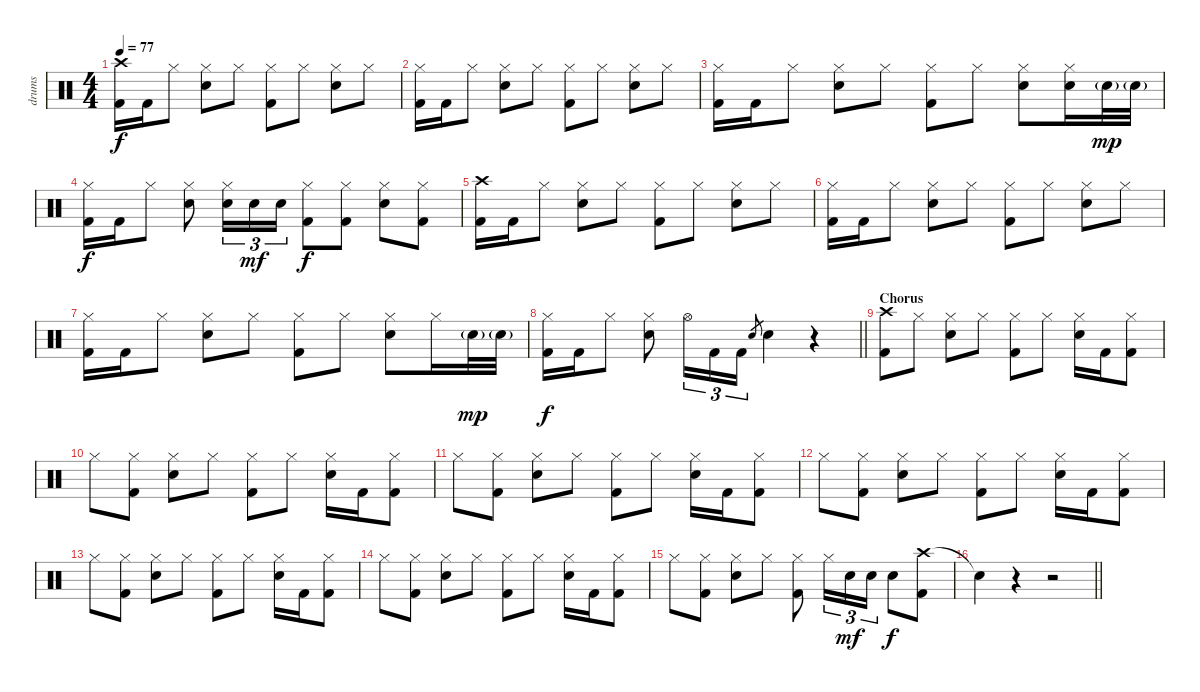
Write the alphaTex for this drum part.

\track ("drums" "drums") {instrument percussion}
\staff {score}
\articulation defaults
\ts (4 4)
\tempo 77
\clef neutral
\ks c
("Crash high (hit)" "Kick (hit) 2").16{dy f} "Kick (hit) 2".16 "Hi-Hat (closed)".8 ("Hi-Hat (closed)" "Electric Snare (hit)").8 "Hi-Hat (closed)".8 ("Hi-Hat (closed)" "Kick (hit) 2").8 "Hi-Hat (closed)".8 ("Hi-Hat (closed)" "Electric Snare (hit)").8 "Hi-Hat (closed)".8 |
("Hi-Hat (closed)" "Kick (hit) 2").16 "Kick (hit) 2".16 "Hi-Hat (closed)".8 ("Hi-Hat (closed)" "Electric Snare (hit)").8 "Hi-Hat (closed)".8 ("Hi-Hat (closed)" "Kick (hit) 2").8 "Hi-Hat (closed)".8 ("Hi-Hat (closed)" "Electric Snare (hit)").8 "Hi-Hat (closed)".8 |
("Hi-Hat (closed)" "Kick (hit) 2").16 "Kick (hit) 2".16 "Hi-Hat (closed)".8 ("Hi-Hat (closed)" "Electric Snare (hit)").8 "Hi-Hat (closed)".8 ("Hi-Hat (closed)" "Kick (hit) 2").8 "Hi-Hat (closed)".8 ("Hi-Hat (closed)" "Electric Snare (hit)").8 ("Hi-Hat (closed)" "Electric Snare (hit)").16 "Electric Snare (hit)"{g}.32{dy mp} "Electric Snare (hit)"{g}.32 |
("Hi-Hat (closed)" "Kick (hit) 2").16{dy f} "Kick (hit) 2".16 "Hi-Hat (closed)".8 ("Hi-Hat (closed)" "Electric Snare (hit)").8 ("Hi-Hat (closed)" "Electric Snare (hit)").16{tu (3 2)} "Electric Snare (hit)".16{tu (3 2) dy mf} "Electric Snare (hit)".16{tu (3 2)} ("Hi-Hat (closed)" "Kick (hit) 2").8{dy f} ("Hi-Hat (closed)" "Kick (hit) 2").8 ("Hi-Hat (closed)" "Electric Snare (hit)").8 ("Hi-Hat (closed)" "Kick (hit) 2").8 |
("Crash high (hit)" "Kick (hit) 2").16 "Kick (hit) 2".16 "Hi-Hat (closed)".8 ("Hi-Hat (closed)" "Electric Snare (hit)").8 "Hi-Hat (closed)".8 ("Hi-Hat (closed)" "Kick (hit) 2").8 "Hi-Hat (closed)".8 ("Hi-Hat (closed)" "Electric Snare (hit)").8 "Hi-Hat (closed)".8 |
("Hi-Hat (closed)" "Kick (hit) 2").16 "Kick (hit) 2".16 "Hi-Hat (closed)".8 ("Hi-Hat (closed)" "Electric Snare (hit)").8 "Hi-Hat (closed)".8 ("Hi-Hat (closed)" "Kick (hit) 2").8 "Hi-Hat (closed)".8 ("Hi-Hat (closed)" "Electric Snare (hit)").8 "Hi-Hat (closed)".8 |
("Hi-Hat (closed)" "Kick (hit) 2").16 "Kick (hit) 2".16 "Hi-Hat (closed)".8 ("Hi-Hat (closed)" "Electric Snare (hit)").8 "Hi-Hat (closed)".8 ("Hi-Hat (closed)" "Kick (hit) 2").8 "Hi-Hat (closed)".8 ("Hi-Hat (closed)" "Electric Snare (hit)").8 "Hi-Hat (closed)".16 "Electric Snare (hit)"{g}.32{dy mp} "Electric Snare (hit)"{g}.32 |
\barLineRight lightlight
("Hi-Hat (closed)" "Kick (hit) 2").16{dy f} "Kick (hit) 2".16 "Hi-Hat (closed)".8 ("Hi-Hat (closed)" "Electric Snare (hit)").8 "Hi-Hat (open)".16{tu (3 2)} "Kick (hit) 2".16{tu (3 2)} "Kick (hit) 2".16{tu (3 2)} "Electric Snare (hit)".8{gr} "Electric Snare (hit)".4 r.4 |
\section ("" "Chorus")
("Crash high (hit)" "Kick (hit) 2").8 "Hi-Hat (closed)".8 ("Hi-Hat (closed)" "Electric Snare (hit)").8 "Hi-Hat (closed)".8 ("Hi-Hat (closed)" "Kick (hit) 2").8 "Hi-Hat (closed)".8 ("Hi-Hat (closed)" "Electric Snare (hit)").16 "Kick (hit) 2".16 ("Hi-Hat (closed)" "Kick (hit) 2").8 |
"Hi-Hat (closed)".8 ("Hi-Hat (closed)" "Kick (hit) 2").8 ("Hi-Hat (closed)" "Electric Snare (hit)").8 "Hi-Hat (closed)".8 ("Hi-Hat (closed)" "Kick (hit) 2").8 "Hi-Hat (closed)".8 ("Hi-Hat (closed)" "Electric Snare (hit)").16 "Kick (hit) 2".16 ("Hi-Hat (closed)" "Kick (hit) 2").8 |
"Hi-Hat (closed)".8 ("Hi-Hat (closed)" "Kick (hit) 2").8 ("Hi-Hat (closed)" "Electric Snare (hit)").8 "Hi-Hat (closed)".8 ("Hi-Hat (closed)" "Kick (hit) 2").8 "Hi-Hat (closed)".8 ("Hi-Hat (closed)" "Electric Snare (hit)").16 "Kick (hit) 2".16 ("Hi-Hat (closed)" "Kick (hit) 2").8 |
"Hi-Hat (closed)".8 ("Hi-Hat (closed)" "Kick (hit) 2").8 ("Hi-Hat (closed)" "Electric Snare (hit)").8 "Hi-Hat (closed)".8 ("Hi-Hat (closed)" "Kick (hit) 2").8 "Hi-Hat (closed)".8 ("Hi-Hat (closed)" "Electric Snare (hit)").16 "Kick (hit) 2".16 ("Hi-Hat (closed)" "Kick (hit) 2").8 |
"Hi-Hat (closed)".8 ("Hi-Hat (closed)" "Kick (hit) 2").8 ("Hi-Hat (closed)" "Electric Snare (hit)").8 "Hi-Hat (closed)".8 ("Hi-Hat (closed)" "Kick (hit) 2").8 "Hi-Hat (closed)".8 ("Hi-Hat (closed)" "Electric Snare (hit)").16 "Kick (hit) 2".16 ("Hi-Hat (closed)" "Kick (hit) 2").8 |
"Hi-Hat (closed)".8 ("Hi-Hat (closed)" "Kick (hit) 2").8 ("Hi-Hat (closed)" "Electric Snare (hit)").8 "Hi-Hat (closed)".8 ("Hi-Hat (closed)" "Kick (hit) 2").8 "Hi-Hat (closed)".8 ("Hi-Hat (closed)" "Electric Snare (hit)").16 "Kick (hit) 2".16 ("Hi-Hat (closed)" "Kick (hit) 2").8 |
"Hi-Hat (closed)".8 ("Hi-Hat (closed)" "Kick (hit) 2").8 ("Hi-Hat (closed)" "Electric Snare (hit)").8 "Hi-Hat (closed)".8 ("Hi-Hat (closed)" "Kick (hit) 2").8 "Hi-Hat (closed)".16{tu (3 2)} "Electric Snare (hit)".16{tu (3 2) dy mf} "Electric Snare (hit)".16{tu (3 2)} "Electric Snare (hit)".8{dy f} ("Crash high (hit)" "Kick (hit) 2").8 |
\barLineRight lightlight "Snare (hit)"{t}.4
r.4 r.2
